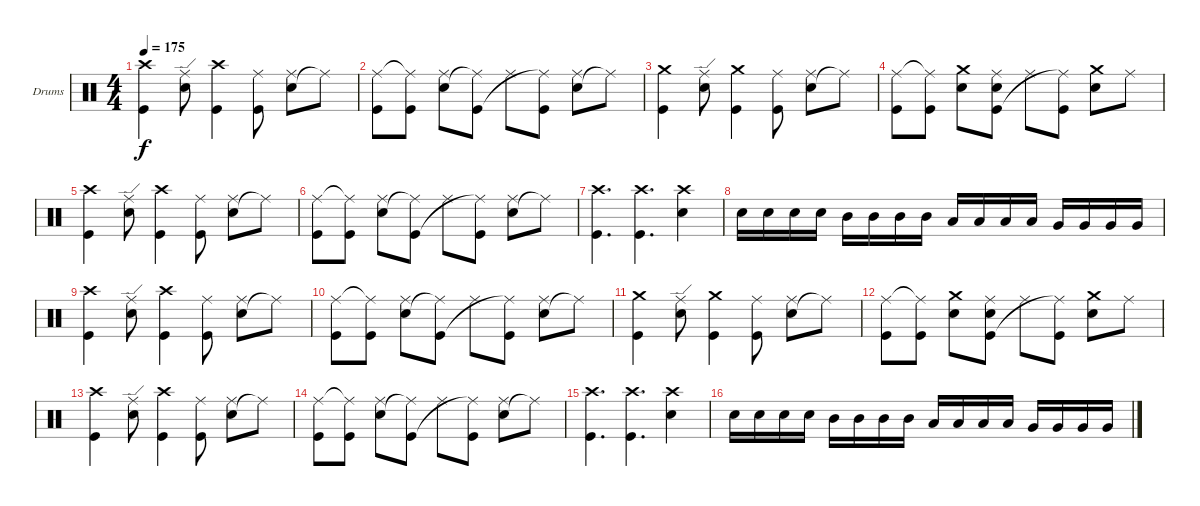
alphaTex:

\bracketExtendMode groupsimilarinstruments
\firstSystemTrackNameOrientation horizontal
\otherSystemsTrackNameOrientation horizontal
\track ("Drumkit" "Drums") {instrument percussion}
\staff {score}
\articulation defaults
\ts (4 4)
\tempo 175
\clef neutral
\ks c
("Crash high (hit)" "Kick (hit)").4{dy f} ("Ride (edge)" "Snare (hit) 2").8 ("Kick (hit)" "Crash high (hit)").4 ("Kick (hit)" "Ride (middle)").8 ("Snare (hit) 2" "Ride (middle)").8 "Ride (middle)"{t}.8 |
("Kick (hit)" "Ride (middle)").8 ("Kick (hit)" "Ride (middle)"{t}).8 ("Snare (hit) 2" "Ride (middle)").8 ("Ride (middle)"{t} "Kick (hit)").8 "Ride (middle)".8 ("Kick (hit)" "Ride (middle)"{t}).8 ("Snare (hit) 2" "Ride (middle)").8 "Ride (middle)"{t}.8 |
("Kick (hit)" "Crash medium (hit)").4 ("Ride (edge)" "Snare (hit) 2").8 ("Kick (hit)" "Crash medium (hit)").4 ("Kick (hit)" "Ride (middle)").8 ("Snare (hit) 2" "Ride (middle)").8 "Ride (middle)"{t}.8 |
("Kick (hit)" "Ride (middle)").8 ("Kick (hit)" "Ride (middle)"{t}).8 ("Snare (hit) 2" "Crash medium (hit)").8 ("Ride (middle)" "Kick (hit)" "Snare (hit) 2").8 "Ride (middle)".8 ("Kick (hit)" "Ride (middle)"{t}).8 ("Snare (hit) 2" "Crash medium (hit)").8 "Ride (middle)".8 |
("Crash high (hit)" "Kick (hit)").4 ("Ride (edge)" "Snare (hit) 2").8 ("Kick (hit)" "Crash high (hit)").4 ("Kick (hit)" "Ride (middle)").8 ("Snare (hit) 2" "Ride (middle)").8 "Ride (middle)"{t}.8 |
("Kick (hit)" "Ride (middle)").8 ("Kick (hit)" "Ride (middle)"{t}).8 ("Snare (hit) 2" "Ride (middle)").8 ("Ride (middle)"{t} "Kick (hit)").8 "Ride (middle)".8 ("Kick (hit)" "Ride (middle)"{t}).8 ("Snare (hit) 2" "Ride (middle)").8 "Ride (middle)"{t}.8 |
("Crash high (hit)" "Kick (hit)").4{d} ("Kick (hit)" "Crash high (hit)").4{d} ("Snare (hit) 2" "Crash high (hit)").4 |
"Snare (hit) 2".16 "Snare (hit) 2".16 "Snare (hit) 2".16 "Snare (hit) 2".16 "Mid Tom (hit)".16 "Mid Tom (hit)".16 "Mid Tom (hit)".16 "Mid Tom (hit)".16 "Low Tom (hit)".16 "Low Tom (hit)".16 "Low Tom (hit)".16 "Low Tom (hit)".16 "Very Low Tom (hit)".16 "Very Low Tom (hit)".16 "Very Low Tom (hit)".16 "Very Low Tom (hit)".16 |
("Crash high (hit)" "Kick (hit)").4 ("Ride (edge)" "Snare (hit) 2").8 ("Kick (hit)" "Crash high (hit)").4 ("Kick (hit)" "Ride (middle)").8 ("Snare (hit) 2" "Ride (middle)").8 "Ride (middle)"{t}.8 |
("Kick (hit)" "Ride (middle)").8 ("Kick (hit)" "Ride (middle)"{t}).8 ("Snare (hit) 2" "Ride (middle)").8 ("Ride (middle)"{t} "Kick (hit)").8 "Ride (middle)".8 ("Kick (hit)" "Ride (middle)"{t}).8 ("Snare (hit) 2" "Ride (middle)").8 "Ride (middle)"{t}.8 |
("Kick (hit)" "Crash medium (hit)").4 ("Ride (edge)" "Snare (hit) 2").8 ("Kick (hit)" "Crash medium (hit)").4 ("Kick (hit)" "Ride (middle)").8 ("Snare (hit) 2" "Ride (middle)").8 "Ride (middle)"{t}.8 |
("Kick (hit)" "Ride (middle)").8 ("Kick (hit)" "Ride (middle)"{t}).8 ("Snare (hit) 2" "Crash medium (hit)").8 ("Ride (middle)" "Kick (hit)" "Snare (hit) 2").8 "Ride (middle)".8 ("Kick (hit)" "Ride (middle)"{t}).8 ("Snare (hit) 2" "Crash medium (hit)").8 "Ride (middle)".8 |
("Crash high (hit)" "Kick (hit)").4 ("Ride (edge)" "Snare (hit) 2").8 ("Kick (hit)" "Crash high (hit)").4 ("Kick (hit)" "Ride (middle)").8 ("Snare (hit) 2" "Ride (middle)").8 "Ride (middle)"{t}.8 |
("Kick (hit)" "Ride (middle)").8 ("Kick (hit)" "Ride (middle)"{t}).8 ("Snare (hit) 2" "Ride (middle)").8 ("Ride (middle)"{t} "Kick (hit)").8 "Ride (middle)".8 ("Kick (hit)" "Ride (middle)"{t}).8 ("Snare (hit) 2" "Ride (middle)").8 "Ride (middle)"{t}.8 |
("Crash high (hit)" "Kick (hit)").4{d} ("Kick (hit)" "Crash high (hit)").4{d} ("Snare (hit) 2" "Crash high (hit)").4 |
"Snare (hit) 2".16 "Snare (hit) 2".16 "Snare (hit) 2".16 "Snare (hit) 2".16 "Mid Tom (hit)".16 "Mid Tom (hit)".16 "Mid Tom (hit)".16 "Mid Tom (hit)".16 "Low Tom (hit)".16 "Low Tom (hit)".16 "Low Tom (hit)".16 "Low Tom (hit)".16 "Very Low Tom (hit)".16 "Very Low Tom (hit)".16 "Very Low Tom (hit)".16 "Very Low Tom (hit)".16
